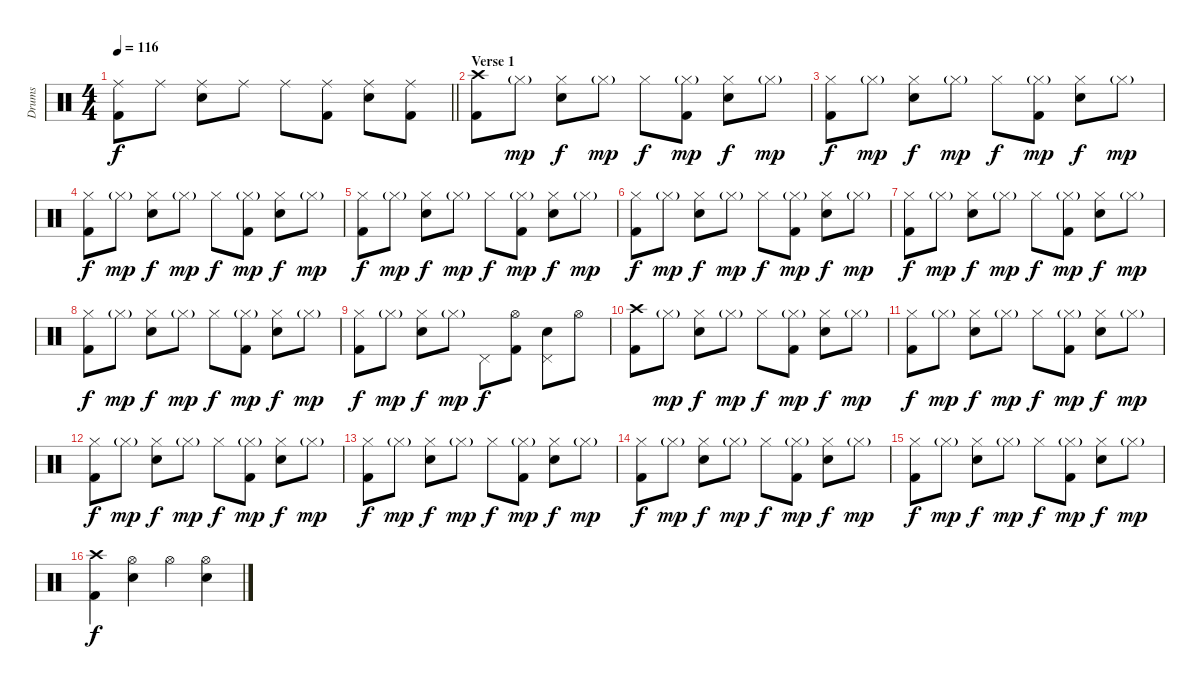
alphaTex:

\track ("Drums" "Drums") {instrument percussion}
\staff {score}
\articulation defaults
\ts (4 4)
\tempo 116
\clef neutral
\barLineRight lightlight
\ks c
("Ride (middle)" "Kick (hit) 2").8{dy f} "Ride (middle)".8 ("Ride (middle)" "Snare (hit) 2").8 "Ride (middle)".8 "Ride (middle)".8 ("Ride (middle)" "Kick (hit) 2").8 ("Ride (middle)" "Snare (hit) 2").8 ("Ride (middle)" "Kick (hit) 2").8 |
\section ("" "Verse 1")
("Crash high (hit)" "Kick (hit) 2").8 "Hi-Hat (closed)"{g}.8{dy mp} ("Hi-Hat (closed)" "Snare (hit) 2").8{dy f} "Hi-Hat (closed)"{g}.8{dy mp} "Hi-Hat (closed)".8{dy f} ("Hi-Hat (closed)"{g} "Kick (hit) 2").8{dy mp} ("Hi-Hat (closed)" "Snare (hit) 2").8{dy f} "Hi-Hat (closed)"{g}.8{dy mp} |
("Hi-Hat (closed)" "Kick (hit) 2").8{dy f} "Hi-Hat (closed)"{g}.8{dy mp} ("Hi-Hat (closed)" "Snare (hit) 2").8{dy f} "Hi-Hat (closed)"{g}.8{dy mp} "Hi-Hat (closed)".8{dy f} ("Hi-Hat (closed)"{g} "Kick (hit) 2").8{dy mp} ("Hi-Hat (closed)" "Snare (hit) 2").8{dy f} "Hi-Hat (closed)"{g}.8{dy mp} |
("Hi-Hat (closed)" "Kick (hit) 2").8{dy f} "Hi-Hat (closed)"{g}.8{dy mp} ("Hi-Hat (closed)" "Snare (hit) 2").8{dy f} "Hi-Hat (closed)"{g}.8{dy mp} "Hi-Hat (closed)".8{dy f} ("Hi-Hat (closed)"{g} "Kick (hit) 2").8{dy mp} ("Hi-Hat (closed)" "Snare (hit) 2").8{dy f} "Hi-Hat (closed)"{g}.8{dy mp} |
("Hi-Hat (closed)" "Kick (hit) 2").8{dy f} "Hi-Hat (closed)"{g}.8{dy mp} ("Hi-Hat (closed)" "Snare (hit) 2").8{dy f} "Hi-Hat (closed)"{g}.8{dy mp} "Hi-Hat (closed)".8{dy f} ("Hi-Hat (closed)"{g} "Kick (hit) 2").8{dy mp} ("Hi-Hat (closed)" "Snare (hit) 2").8{dy f} "Hi-Hat (closed)"{g}.8{dy mp} |
("Hi-Hat (closed)" "Kick (hit) 2").8{dy f} "Hi-Hat (closed)"{g}.8{dy mp} ("Hi-Hat (closed)" "Snare (hit) 2").8{dy f} "Hi-Hat (closed)"{g}.8{dy mp} "Hi-Hat (closed)".8{dy f} ("Hi-Hat (closed)"{g} "Kick (hit) 2").8{dy mp} ("Hi-Hat (closed)" "Snare (hit) 2").8{dy f} "Hi-Hat (closed)"{g}.8{dy mp} |
("Hi-Hat (closed)" "Kick (hit) 2").8{dy f} "Hi-Hat (closed)"{g}.8{dy mp} ("Hi-Hat (closed)" "Snare (hit) 2").8{dy f} "Hi-Hat (closed)"{g}.8{dy mp} "Hi-Hat (closed)".8{dy f} ("Hi-Hat (closed)"{g} "Kick (hit) 2").8{dy mp} ("Hi-Hat (closed)" "Snare (hit) 2").8{dy f} "Hi-Hat (closed)"{g}.8{dy mp} |
("Hi-Hat (closed)" "Kick (hit) 2").8{dy f} "Hi-Hat (closed)"{g}.8{dy mp} ("Hi-Hat (closed)" "Snare (hit) 2").8{dy f} "Hi-Hat (closed)"{g}.8{dy mp} "Hi-Hat (closed)".8{dy f} ("Hi-Hat (closed)"{g} "Kick (hit) 2").8{dy mp} ("Hi-Hat (closed)" "Snare (hit) 2").8{dy f} "Hi-Hat (closed)"{g}.8{dy mp} |
("Hi-Hat (closed)" "Kick (hit) 2").8{dy f} "Hi-Hat (closed)"{g}.8{dy mp} ("Hi-Hat (closed)" "Snare (hit) 2").8{dy f} "Hi-Hat (closed)"{g}.8{dy mp} "Pedal Hi-Hat (hit)".8{dy f} ("Hi-Hat (open)" "Kick (hit) 2").8 ("Snare (hit) 2" "Pedal Hi-Hat (hit)").8 "Hi-Hat (open)".8 |
("Crash high (hit)" "Kick (hit) 2").8 "Hi-Hat (closed)"{g}.8{dy mp} ("Hi-Hat (closed)" "Snare (hit) 2").8{dy f} "Hi-Hat (closed)"{g}.8{dy mp} "Hi-Hat (closed)".8{dy f} ("Hi-Hat (closed)"{g} "Kick (hit) 2").8{dy mp} ("Hi-Hat (closed)" "Snare (hit) 2").8{dy f} "Hi-Hat (closed)"{g}.8{dy mp} |
("Hi-Hat (closed)" "Kick (hit) 2").8{dy f} "Hi-Hat (closed)"{g}.8{dy mp} ("Hi-Hat (closed)" "Snare (hit) 2").8{dy f} "Hi-Hat (closed)"{g}.8{dy mp} "Hi-Hat (closed)".8{dy f} ("Hi-Hat (closed)"{g} "Kick (hit) 2").8{dy mp} ("Hi-Hat (closed)" "Snare (hit) 2").8{dy f} "Hi-Hat (closed)"{g}.8{dy mp} |
("Hi-Hat (closed)" "Kick (hit) 2").8{dy f} "Hi-Hat (closed)"{g}.8{dy mp} ("Hi-Hat (closed)" "Snare (hit) 2").8{dy f} "Hi-Hat (closed)"{g}.8{dy mp} "Hi-Hat (closed)".8{dy f} ("Hi-Hat (closed)"{g} "Kick (hit) 2").8{dy mp} ("Hi-Hat (closed)" "Snare (hit) 2").8{dy f} "Hi-Hat (closed)"{g}.8{dy mp} |
("Hi-Hat (closed)" "Kick (hit) 2").8{dy f} "Hi-Hat (closed)"{g}.8{dy mp} ("Hi-Hat (closed)" "Snare (hit) 2").8{dy f} "Hi-Hat (closed)"{g}.8{dy mp} "Hi-Hat (closed)".8{dy f} ("Hi-Hat (closed)"{g} "Kick (hit) 2").8{dy mp} ("Hi-Hat (closed)" "Snare (hit) 2").8{dy f} "Hi-Hat (closed)"{g}.8{dy mp} |
("Hi-Hat (closed)" "Kick (hit) 2").8{dy f} "Hi-Hat (closed)"{g}.8{dy mp} ("Hi-Hat (closed)" "Snare (hit) 2").8{dy f} "Hi-Hat (closed)"{g}.8{dy mp} "Hi-Hat (closed)".8{dy f} ("Hi-Hat (closed)"{g} "Kick (hit) 2").8{dy mp} ("Hi-Hat (closed)" "Snare (hit) 2").8{dy f} "Hi-Hat (closed)"{g}.8{dy mp} |
("Hi-Hat (closed)" "Kick (hit) 2").8{dy f} "Hi-Hat (closed)"{g}.8{dy mp} ("Hi-Hat (closed)" "Snare (hit) 2").8{dy f} "Hi-Hat (closed)"{g}.8{dy mp} "Hi-Hat (closed)".8{dy f} ("Hi-Hat (closed)"{g} "Kick (hit) 2").8{dy mp} ("Hi-Hat (closed)" "Snare (hit) 2").8{dy f} "Hi-Hat (closed)"{g}.8{dy mp} |
("Crash high (hit)" "Kick (hit) 2").4{dy f} ("Hi-Hat (open)" "Snare (hit) 2").4 "Hi-Hat (open)".4 ("Hi-Hat (open)" "Snare (hit) 2").4
